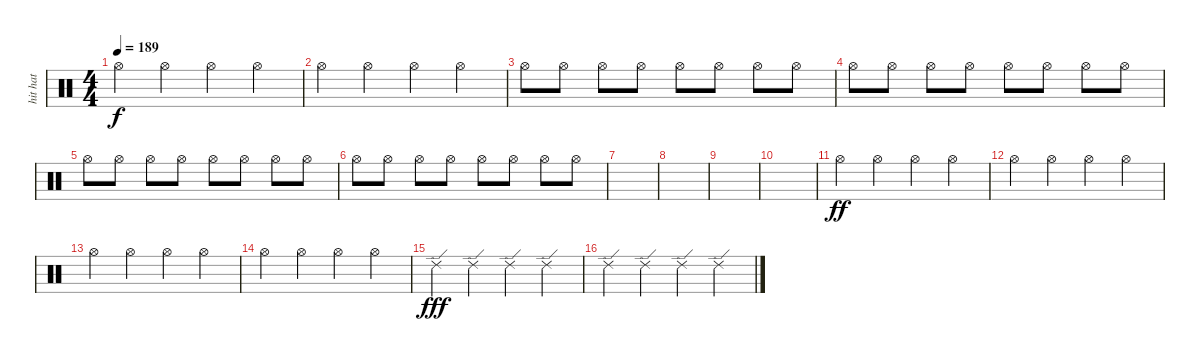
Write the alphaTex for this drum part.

\track ("hit hat" "hit hat") {instrument percussion}
\staff {score}
\articulation defaults
\ts (4 4)
\tempo 189
\clef neutral
\ks c "Hi-Hat (open)".4{dy f} "Hi-Hat (open)".4 "Hi-Hat (open)".4 "Hi-Hat (open)".4
|
"Hi-Hat (open)".4 "Hi-Hat (open)".4 "Hi-Hat (open)".4 "Hi-Hat (open)".4 |
"Hi-Hat (open)".8 "Hi-Hat (open)".8 "Hi-Hat (open)".8 "Hi-Hat (open)".8 "Hi-Hat (open)".8 "Hi-Hat (open)".8 "Hi-Hat (open)".8 "Hi-Hat (open)".8 |
"Hi-Hat (open)".8 "Hi-Hat (open)".8 "Hi-Hat (open)".8 "Hi-Hat (open)".8 "Hi-Hat (open)".8 "Hi-Hat (open)".8 "Hi-Hat (open)".8 "Hi-Hat (open)".8 |
"Hi-Hat (open)".8 "Hi-Hat (open)".8 "Hi-Hat (open)".8 "Hi-Hat (open)".8 "Hi-Hat (open)".8 "Hi-Hat (open)".8 "Hi-Hat (open)".8 "Hi-Hat (open)".8 |
"Hi-Hat (open)".8 "Hi-Hat (open)".8 "Hi-Hat (open)".8 "Hi-Hat (open)".8 "Hi-Hat (open)".8 "Hi-Hat (open)".8 "Hi-Hat (open)".8 "Hi-Hat (open)".8 |
|
|
|
|
"Hi-Hat (open)".4{dy ff} "Hi-Hat (open)".4 "Hi-Hat (open)".4 "Hi-Hat (open)".4 |
"Hi-Hat (open)".4 "Hi-Hat (open)".4 "Hi-Hat (open)".4 "Hi-Hat (open)".4 |
"Hi-Hat (open)".4 "Hi-Hat (open)".4 "Hi-Hat (open)".4 "Hi-Hat (open)".4 |
"Hi-Hat (open)".4 "Hi-Hat (open)".4 "Hi-Hat (open)".4 "Hi-Hat (open)".4 |
"Ride (edge) 2".4{dy fff} "Ride (edge) 2".4 "Ride (edge) 2".4 "Ride (edge) 2".4 |
"Ride (edge) 2".4 "Ride (edge) 2".4 "Ride (edge) 2".4 "Ride (edge) 2".4
